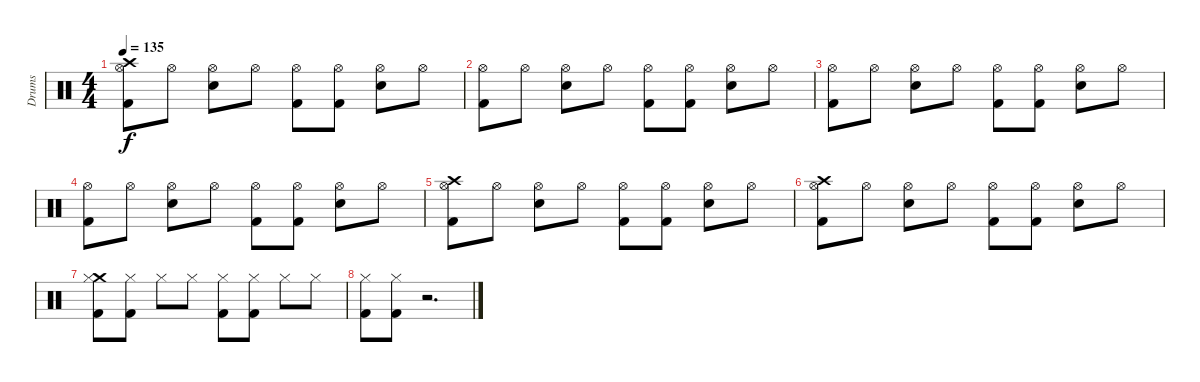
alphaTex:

\track ("Drums" "Drums") {instrument percussion}
\staff {score}
\articulation defaults
\ts (4 4)
\tempo 135
\clef neutral
\ks c
("Crash high (hit)" "Hi-Hat (open)" "Kick (hit) 2").8{dy f} "Hi-Hat (open)".8 ("Hi-Hat (open)" "Snare (hit) 2").8 "Hi-Hat (open)".8 ("Hi-Hat (open)" "Kick (hit) 2").8 ("Hi-Hat (open)" "Kick (hit) 2").8 ("Hi-Hat (open)" "Snare (hit) 2").8 "Hi-Hat (open)".8 |
("Hi-Hat (open)" "Kick (hit) 2").8 "Hi-Hat (open)".8 ("Hi-Hat (open)" "Snare (hit) 2").8 "Hi-Hat (open)".8 ("Hi-Hat (open)" "Kick (hit) 2").8 ("Hi-Hat (open)" "Kick (hit) 2").8 ("Hi-Hat (open)" "Snare (hit) 2").8 "Hi-Hat (open)".8 |
("Hi-Hat (open)" "Kick (hit) 2").8 "Hi-Hat (open)".8 ("Hi-Hat (open)" "Snare (hit) 2").8 "Hi-Hat (open)".8 ("Hi-Hat (open)" "Kick (hit) 2").8 ("Hi-Hat (open)" "Kick (hit) 2").8 ("Hi-Hat (open)" "Snare (hit) 2").8 "Hi-Hat (open)".8 |
("Hi-Hat (open)" "Kick (hit) 2").8 "Hi-Hat (open)".8 ("Hi-Hat (open)" "Snare (hit) 2").8 "Hi-Hat (open)".8 ("Hi-Hat (open)" "Kick (hit) 2").8 ("Hi-Hat (open)" "Kick (hit) 2").8 ("Hi-Hat (open)" "Snare (hit) 2").8 "Hi-Hat (open)".8 |
("Crash high (hit)" "Hi-Hat (open)" "Kick (hit) 2").8 "Hi-Hat (open)".8 ("Hi-Hat (open)" "Snare (hit) 2").8 "Hi-Hat (open)".8 ("Hi-Hat (open)" "Kick (hit) 2").8 ("Hi-Hat (open)" "Kick (hit) 2").8 ("Hi-Hat (open)" "Snare (hit) 2").8 "Hi-Hat (open)".8 |
("Crash high (hit)" "Hi-Hat (open)" "Kick (hit) 2").8 "Hi-Hat (open)".8 ("Hi-Hat (open)" "Snare (hit) 2").8 "Hi-Hat (open)".8 ("Hi-Hat (open)" "Kick (hit) 2").8 ("Hi-Hat (open)" "Kick (hit) 2").8 ("Hi-Hat (open)" "Snare (hit) 2").8 "Hi-Hat (open)".8 |
("Crash medium (hit)" "Hi-Hat (closed)" "Kick (hit) 2").8 ("Hi-Hat (closed)" "Kick (hit) 2").8 "Hi-Hat (closed)".8 "Hi-Hat (closed)".8 ("Hi-Hat (closed)" "Kick (hit) 2").8 ("Hi-Hat (closed)" "Kick (hit) 2").8 "Hi-Hat (closed)".8 "Hi-Hat (closed)".8 |
("Hi-Hat (closed)" "Kick (hit) 2").8 ("Hi-Hat (closed)" "Kick (hit) 2").8 r.2{d}
